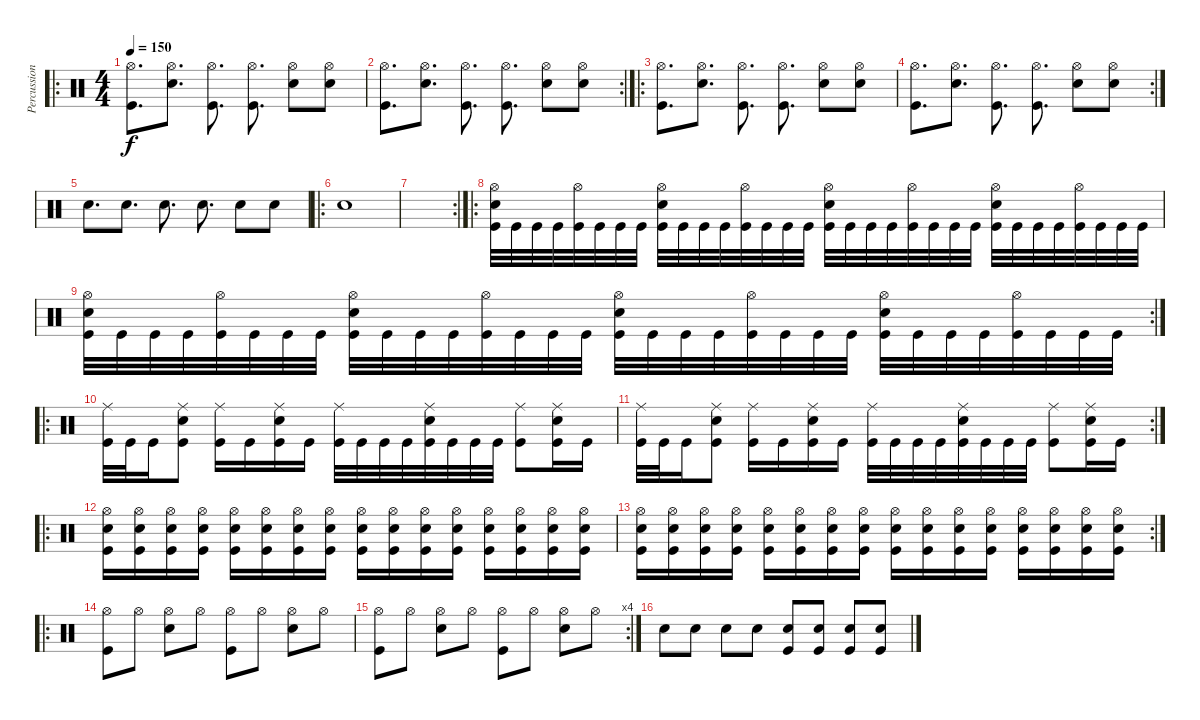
\track ("Percussion" "Percussion") {instrument percussion}
\staff {score}
\articulation defaults
\ro
\ts (4 4)
\tempo 150
\clef neutral
\ks c
("Hi-Hat (open)" "Kick (hit)").8{d dy f} ("Hi-Hat (open)" "Snare (hit) 2").8{d} ("Hi-Hat (open)" "Kick (hit)").8{d} ("Hi-Hat (open)" "Kick (hit)").8{d} ("Hi-Hat (open)" "Snare (hit) 2").8 ("Hi-Hat (open)" "Snare (hit) 2").8 |
\rc 2
("Hi-Hat (open)" "Kick (hit)").8{d} ("Hi-Hat (open)" "Snare (hit) 2").8{d} ("Hi-Hat (open)" "Kick (hit)").8{d} ("Hi-Hat (open)" "Kick (hit)").8{d} ("Hi-Hat (open)" "Snare (hit) 2").8 ("Hi-Hat (open)" "Snare (hit) 2").8 |
\ro
("Hi-Hat (open)" "Kick (hit)").8{d} ("Hi-Hat (open)" "Snare (hit) 2").8{d} ("Hi-Hat (open)" "Kick (hit)").8{d} ("Hi-Hat (open)" "Kick (hit)").8{d} ("Hi-Hat (open)" "Snare (hit) 2").8 ("Hi-Hat (open)" "Snare (hit) 2").8 |
\rc 2
("Hi-Hat (open)" "Kick (hit)").8{d} ("Hi-Hat (open)" "Snare (hit) 2").8{d} ("Hi-Hat (open)" "Kick (hit)").8{d} ("Hi-Hat (open)" "Kick (hit)").8{d} ("Hi-Hat (open)" "Snare (hit) 2").8 ("Hi-Hat (open)" "Snare (hit) 2").8 |
"Snare (hit) 2".8{d} "Snare (hit) 2".8{d} "Snare (hit) 2".8{d} "Snare (hit) 2".8{d} "Snare (hit) 2".8 "Snare (hit) 2".8 |
\ro "Snare (hit) 2".1
|
\rc 2
|
\ro
("Hi-Hat (open)" "Snare (hit) 2" "Kick (hit)").32 "Kick (hit)".32 "Kick (hit)".32 "Kick (hit)".32 ("Hi-Hat (open)" "Kick (hit)").32 "Kick (hit)".32 "Kick (hit)".32 "Kick (hit)".32 ("Hi-Hat (open)" "Snare (hit) 2" "Kick (hit)").32 "Kick (hit)".32 "Kick (hit)".32 "Kick (hit)".32 ("Hi-Hat (open)" "Kick (hit)").32 "Kick (hit)".32 "Kick (hit)".32 "Kick (hit)".32 ("Hi-Hat (open)" "Snare (hit) 2" "Kick (hit)").32 "Kick (hit)".32 "Kick (hit)".32 "Kick (hit)".32 ("Hi-Hat (open)" "Kick (hit)").32 "Kick (hit)".32 "Kick (hit)".32 "Kick (hit)".32 ("Hi-Hat (open)" "Snare (hit) 2" "Kick (hit)").32 "Kick (hit)".32 "Kick (hit)".32 "Kick (hit)".32 ("Hi-Hat (open)" "Kick (hit)").32 "Kick (hit)".32 "Kick (hit)".32 "Kick (hit)".32 |
\rc 2
("Hi-Hat (open)" "Snare (hit) 2" "Kick (hit)").32 "Kick (hit)".32 "Kick (hit)".32 "Kick (hit)".32 ("Hi-Hat (open)" "Kick (hit)").32 "Kick (hit)".32 "Kick (hit)".32 "Kick (hit)".32 ("Hi-Hat (open)" "Snare (hit) 2" "Kick (hit)").32 "Kick (hit)".32 "Kick (hit)".32 "Kick (hit)".32 ("Hi-Hat (open)" "Kick (hit)").32 "Kick (hit)".32 "Kick (hit)".32 "Kick (hit)".32 ("Hi-Hat (open)" "Snare (hit) 2" "Kick (hit)").32 "Kick (hit)".32 "Kick (hit)".32 "Kick (hit)".32 ("Hi-Hat (open)" "Kick (hit)").32 "Kick (hit)".32 "Kick (hit)".32 "Kick (hit)".32 ("Hi-Hat (open)" "Snare (hit) 2" "Kick (hit)").32 "Kick (hit)".32 "Kick (hit)".32 "Kick (hit)".32 ("Hi-Hat (open)" "Kick (hit)").32 "Kick (hit)".32 "Kick (hit)".32 "Kick (hit)".32 |
\ro
("Ride (middle)" "Kick (hit)").32 "Kick (hit)".32 "Kick (hit)".16 ("Ride (middle)" "Snare (hit) 2" "Kick (hit)").8 ("Ride (middle)" "Kick (hit)").16 "Kick (hit)".16 ("Ride (middle)" "Snare (hit) 2" "Kick (hit)").16 "Kick (hit)".16 ("Ride (middle)" "Kick (hit)").32 "Kick (hit)".32 "Kick (hit)".32 "Kick (hit)".32 ("Ride (middle)" "Snare (hit) 2" "Kick (hit)").32 "Kick (hit)".32 "Kick (hit)".32 "Kick (hit)".32 ("Ride (middle)" "Kick (hit)").8 ("Ride (middle)" "Snare (hit) 2" "Kick (hit)").16 "Kick (hit)".16 |
\rc 2
("Ride (middle)" "Kick (hit)").32 "Kick (hit)".32 "Kick (hit)".16 ("Ride (middle)" "Snare (hit) 2" "Kick (hit)").8 ("Ride (middle)" "Kick (hit)").16 "Kick (hit)".16 ("Ride (middle)" "Snare (hit) 2" "Kick (hit)").16 "Kick (hit)".16 ("Ride (middle)" "Kick (hit)").32 "Kick (hit)".32 "Kick (hit)".32 "Kick (hit)".32 ("Ride (middle)" "Snare (hit) 2" "Kick (hit)").32 "Kick (hit)".32 "Kick (hit)".32 "Kick (hit)".32 ("Ride (middle)" "Kick (hit)").8 ("Ride (middle)" "Snare (hit) 2" "Kick (hit)").16 "Kick (hit)".16 |
\ro
("Hi-Hat (open)" "Snare (hit) 2" "Kick (hit)").16 ("Hi-Hat (open)" "Snare (hit) 2" "Kick (hit)").16 ("Hi-Hat (open)" "Snare (hit) 2" "Kick (hit)").16 ("Hi-Hat (open)" "Snare (hit) 2" "Kick (hit)").16 ("Hi-Hat (open)" "Snare (hit) 2" "Kick (hit)").16 ("Hi-Hat (open)" "Snare (hit) 2" "Kick (hit)").16 ("Hi-Hat (open)" "Snare (hit) 2" "Kick (hit)").16 ("Hi-Hat (open)" "Snare (hit) 2" "Kick (hit)").16 ("Hi-Hat (open)" "Snare (hit) 2" "Kick (hit)").16 ("Hi-Hat (open)" "Snare (hit) 2" "Kick (hit)").16 ("Hi-Hat (open)" "Snare (hit) 2" "Kick (hit)").16 ("Hi-Hat (open)" "Snare (hit) 2" "Kick (hit)").16 ("Hi-Hat (open)" "Snare (hit) 2" "Kick (hit)").16 ("Hi-Hat (open)" "Snare (hit) 2" "Kick (hit)").16 ("Hi-Hat (open)" "Snare (hit) 2" "Kick (hit)").16 ("Hi-Hat (open)" "Snare (hit) 2" "Kick (hit)").16 |
\rc 2
("Hi-Hat (open)" "Snare (hit) 2" "Kick (hit)").16 ("Hi-Hat (open)" "Snare (hit) 2" "Kick (hit)").16 ("Hi-Hat (open)" "Snare (hit) 2" "Kick (hit)").16 ("Hi-Hat (open)" "Snare (hit) 2" "Kick (hit)").16 ("Hi-Hat (open)" "Snare (hit) 2" "Kick (hit)").16 ("Hi-Hat (open)" "Snare (hit) 2" "Kick (hit)").16 ("Hi-Hat (open)" "Snare (hit) 2" "Kick (hit)").16 ("Hi-Hat (open)" "Snare (hit) 2" "Kick (hit)").16 ("Hi-Hat (open)" "Snare (hit) 2" "Kick (hit)").16 ("Hi-Hat (open)" "Snare (hit) 2" "Kick (hit)").16 ("Hi-Hat (open)" "Snare (hit) 2" "Kick (hit)").16 ("Hi-Hat (open)" "Snare (hit) 2" "Kick (hit)").16 ("Hi-Hat (open)" "Snare (hit) 2" "Kick (hit)").16 ("Hi-Hat (open)" "Snare (hit) 2" "Kick (hit)").16 ("Hi-Hat (open)" "Snare (hit) 2" "Kick (hit)").16 ("Hi-Hat (open)" "Snare (hit) 2" "Kick (hit)").16 |
\ro
("Hi-Hat (open)" "Kick (hit)").8 "Hi-Hat (open)".8 ("Hi-Hat (open)" "Snare (hit) 2").8 "Hi-Hat (open)".8 ("Hi-Hat (open)" "Kick (hit)").8 "Hi-Hat (open)".8 ("Hi-Hat (open)" "Snare (hit) 2").8 "Hi-Hat (open)".8 |
\rc 4
("Hi-Hat (open)" "Kick (hit)").8 "Hi-Hat (open)".8 ("Hi-Hat (open)" "Snare (hit) 2").8 "Hi-Hat (open)".8 ("Hi-Hat (open)" "Kick (hit)").8 "Hi-Hat (open)".8 ("Hi-Hat (open)" "Snare (hit) 2").8 "Hi-Hat (open)".8 |
"Snare (hit) 2".8 "Snare (hit) 2".8 "Snare (hit) 2".8 "Snare (hit) 2".8 ("Snare (hit) 2" "Kick (hit)").8 ("Snare (hit) 2" "Kick (hit)").8 ("Snare (hit) 2" "Kick (hit)").8 ("Snare (hit) 2" "Kick (hit)").8
